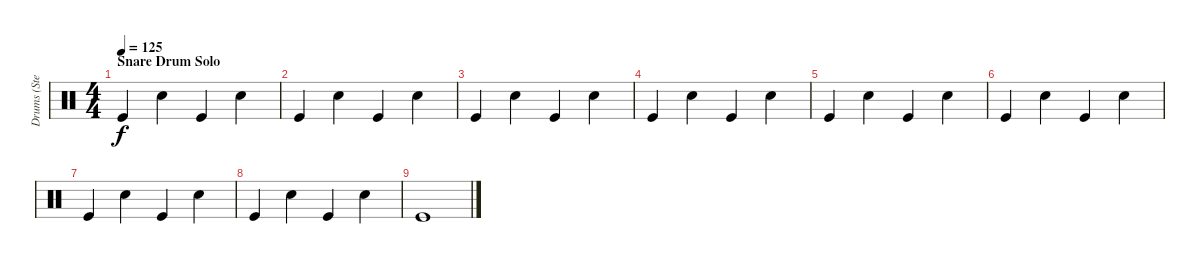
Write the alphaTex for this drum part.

\track ("Drums (Stephen Morris)" "Drums (Ste") {instrument percussion}
\staff {score}
\articulation defaults
\ts (4 4)
\section ("" "Snare Drum Solo")
\tempo 125
\clef neutral
\ks c "Kick (hit)".4{dy f} "Electric Snare (hit)".4 "Kick (hit)".4 "Electric Snare (hit)".4
|
"Kick (hit)".4 "Electric Snare (hit)".4 "Kick (hit)".4 "Electric Snare (hit)".4 |
"Kick (hit)".4 "Electric Snare (hit)".4 "Kick (hit)".4 "Electric Snare (hit)".4 |
"Kick (hit)".4 "Electric Snare (hit)".4 "Kick (hit)".4 "Electric Snare (hit)".4 |
"Kick (hit)".4 "Electric Snare (hit)".4 "Kick (hit)".4 "Electric Snare (hit)".4 |
"Kick (hit)".4 "Electric Snare (hit)".4 "Kick (hit)".4 "Electric Snare (hit)".4 |
"Kick (hit)".4 "Electric Snare (hit)".4 "Kick (hit)".4 "Electric Snare (hit)".4 |
"Kick (hit)".4 "Electric Snare (hit)".4 "Kick (hit)".4 "Electric Snare (hit)".4 |
"Kick (hit)".1
